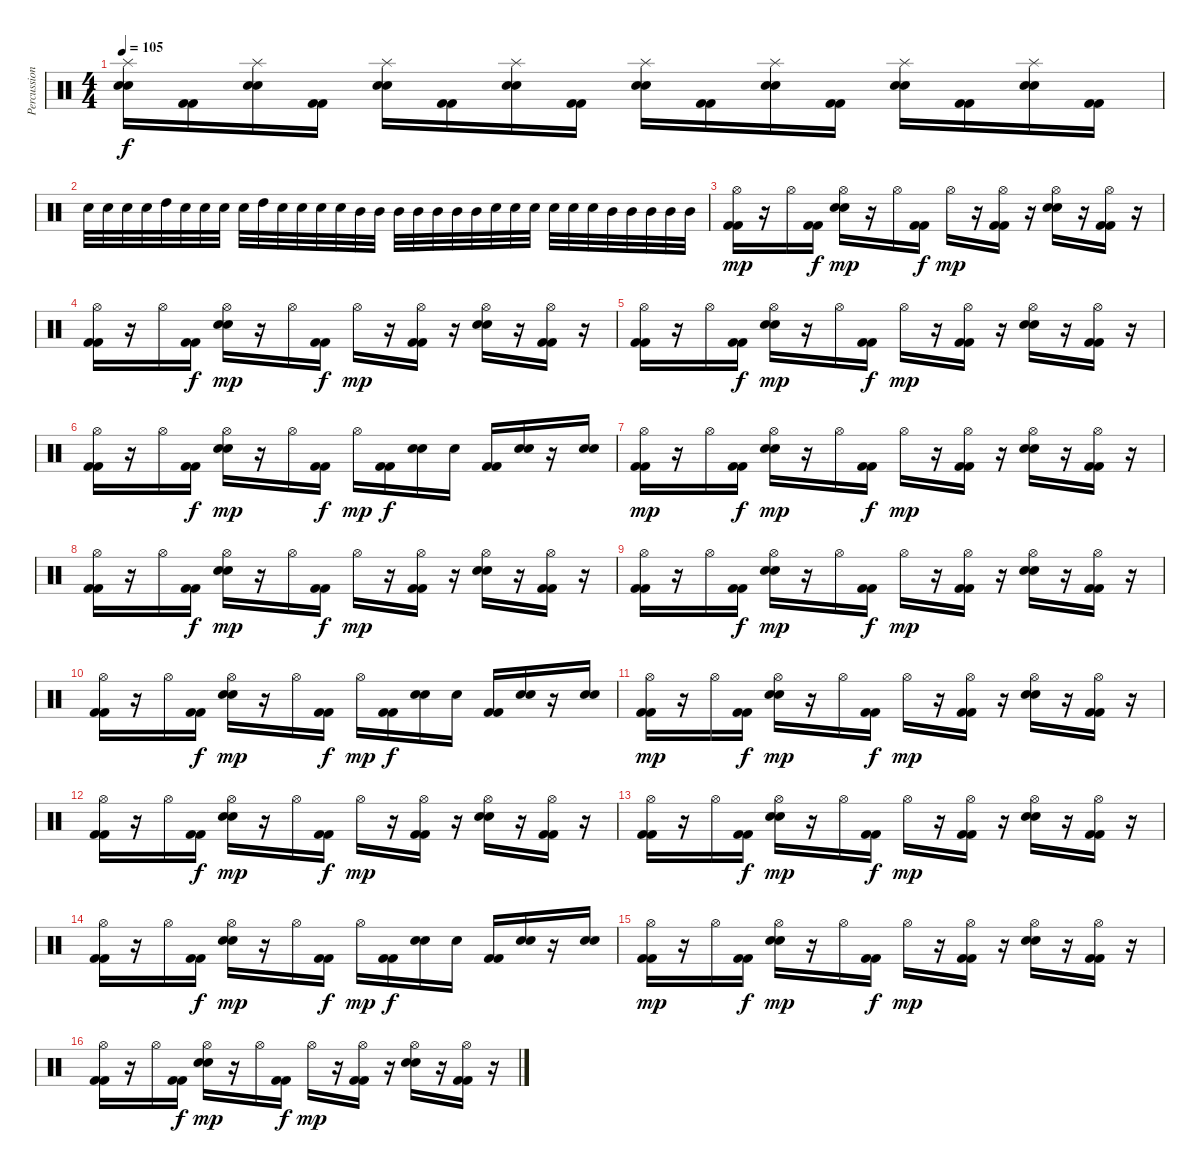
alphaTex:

\track ("Percussions" "Percussion") {instrument percussion}
\staff {score}
\articulation defaults
\ts (4 4)
\tempo 105
\clef neutral
\ks c
("Splash (hit)" "Electric Snare (hit)" "Electric Snare (hit)").16{dy f} ("Kick (hit) 2" "Kick (hit) 2").16 ("Splash (hit)" "Electric Snare (hit)" "Electric Snare (hit)").16 ("Kick (hit) 2" "Kick (hit) 2").16 ("Splash (hit)" "Electric Snare (hit)" "Electric Snare (hit)").16 ("Kick (hit) 2" "Kick (hit) 2").16 ("Splash (hit)" "Electric Snare (hit)" "Electric Snare (hit)").16 ("Kick (hit) 2" "Kick (hit) 2").16 ("Splash (hit)" "Electric Snare (hit)" "Electric Snare (hit)").16 ("Kick (hit) 2" "Kick (hit) 2").16 ("Splash (hit)" "Electric Snare (hit)" "Electric Snare (hit)").16 ("Kick (hit) 2" "Kick (hit) 2").16 ("Splash (hit)" "Electric Snare (hit)" "Electric Snare (hit)").16 ("Kick (hit) 2" "Kick (hit) 2").16 ("Splash (hit)" "Electric Snare (hit)" "Electric Snare (hit)").16 ("Kick (hit) 2" "Kick (hit) 2").16 |
"Electric Snare (hit)".32 "Electric Snare (hit)".32 "Electric Snare (hit)".32 "Electric Snare (hit)".32 "High Tom (hit)".32 "Electric Snare (hit)".32 "Electric Snare (hit)".32 "Electric Snare (hit)".32 "Electric Snare (hit)".32 "High Tom (hit)".32 "Electric Snare (hit)".32 "Electric Snare (hit)".32 "Electric Snare (hit)".32 "Electric Snare (hit)".32 "Mid Tom (hit)".32 "Mid Tom (hit)".32 "Mid Tom (hit)".32 "Mid Tom (hit)".32 "Mid Tom (hit)".32 "Mid Tom (hit)".32 "Mid Tom (hit)".32 "Electric Snare (hit)".32 "Electric Snare (hit)".32 "Electric Snare (hit)".32 "Electric Snare (hit)".32 "Electric Snare (hit)".32 "Electric Snare (hit)".32 "Mid Tom (hit)".32 "Mid Tom (hit)".32 "Mid Tom (hit)".32 "Mid Tom (hit)".32 "Mid Tom (hit)".32 |
("Hi-Hat (open)" "Kick (hit) 2" "Kick (hit) 2").16{dy mp} r.16 "Hi-Hat (open)".16 ("Kick (hit) 2" "Kick (hit) 2").16{dy f} ("Hi-Hat (open)" "Electric Snare (hit)" "Electric Snare (hit)").16{dy mp} r.16 "Hi-Hat (open)".16 ("Kick (hit) 2" "Kick (hit) 2").16{dy f} "Hi-Hat (open)".16{dy mp} r.16 ("Hi-Hat (open)" "Kick (hit) 2" "Kick (hit) 2").16 r.16 ("Hi-Hat (open)" "Electric Snare (hit)" "Electric Snare (hit)").16 r.16 ("Hi-Hat (open)" "Kick (hit) 2" "Kick (hit) 2").16 r.16 |
("Hi-Hat (open)" "Kick (hit) 2" "Kick (hit) 2").16 r.16 "Hi-Hat (open)".16 ("Kick (hit) 2" "Kick (hit) 2").16{dy f} ("Hi-Hat (open)" "Electric Snare (hit)" "Electric Snare (hit)").16{dy mp} r.16 "Hi-Hat (open)".16 ("Kick (hit) 2" "Kick (hit) 2").16{dy f} "Hi-Hat (open)".16{dy mp} r.16 ("Hi-Hat (open)" "Kick (hit) 2" "Kick (hit) 2").16 r.16 ("Hi-Hat (open)" "Electric Snare (hit)" "Electric Snare (hit)").16 r.16 ("Hi-Hat (open)" "Kick (hit) 2" "Kick (hit) 2").16 r.16 |
("Hi-Hat (open)" "Kick (hit) 2" "Kick (hit) 2").16 r.16 "Hi-Hat (open)".16 ("Kick (hit) 2" "Kick (hit) 2").16{dy f} ("Hi-Hat (open)" "Electric Snare (hit)" "Electric Snare (hit)").16{dy mp} r.16 "Hi-Hat (open)".16 ("Kick (hit) 2" "Kick (hit) 2").16{dy f} "Hi-Hat (open)".16{dy mp} r.16 ("Hi-Hat (open)" "Kick (hit) 2" "Kick (hit) 2").16 r.16 ("Hi-Hat (open)" "Electric Snare (hit)" "Electric Snare (hit)").16 r.16 ("Hi-Hat (open)" "Kick (hit) 2" "Kick (hit) 2").16 r.16 |
("Hi-Hat (open)" "Kick (hit) 2" "Kick (hit) 2").16 r.16 "Hi-Hat (open)".16 ("Kick (hit) 2" "Kick (hit) 2").16{dy f} ("Hi-Hat (open)" "Electric Snare (hit)" "Electric Snare (hit)").16{dy mp} r.16 "Hi-Hat (open)".16 ("Kick (hit) 2" "Kick (hit) 2").16{dy f} "Hi-Hat (open)".16{dy mp} ("Kick (hit) 2" "Kick (hit) 2").16{dy f} ("Electric Snare (hit)" "Electric Snare (hit)").16 "Electric Snare (hit)".16 ("Kick (hit) 2" "Kick (hit) 2").16 ("Electric Snare (hit)" "Electric Snare (hit)").16 r.16 ("Electric Snare (hit)" "Electric Snare (hit)").16 |
("Hi-Hat (open)" "Kick (hit) 2" "Kick (hit) 2").16{dy mp} r.16 "Hi-Hat (open)".16 ("Kick (hit) 2" "Kick (hit) 2").16{dy f} ("Hi-Hat (open)" "Electric Snare (hit)" "Electric Snare (hit)").16{dy mp} r.16 "Hi-Hat (open)".16 ("Kick (hit) 2" "Kick (hit) 2").16{dy f} "Hi-Hat (open)".16{dy mp} r.16 ("Hi-Hat (open)" "Kick (hit) 2" "Kick (hit) 2").16 r.16 ("Hi-Hat (open)" "Electric Snare (hit)" "Electric Snare (hit)").16 r.16 ("Hi-Hat (open)" "Kick (hit) 2" "Kick (hit) 2").16 r.16 |
("Hi-Hat (open)" "Kick (hit) 2" "Kick (hit) 2").16 r.16 "Hi-Hat (open)".16 ("Kick (hit) 2" "Kick (hit) 2").16{dy f} ("Hi-Hat (open)" "Electric Snare (hit)" "Electric Snare (hit)").16{dy mp} r.16 "Hi-Hat (open)".16 ("Kick (hit) 2" "Kick (hit) 2").16{dy f} "Hi-Hat (open)".16{dy mp} r.16 ("Hi-Hat (open)" "Kick (hit) 2" "Kick (hit) 2").16 r.16 ("Hi-Hat (open)" "Electric Snare (hit)" "Electric Snare (hit)").16 r.16 ("Hi-Hat (open)" "Kick (hit) 2" "Kick (hit) 2").16 r.16 |
("Hi-Hat (open)" "Kick (hit) 2" "Kick (hit) 2").16 r.16 "Hi-Hat (open)".16 ("Kick (hit) 2" "Kick (hit) 2").16{dy f} ("Hi-Hat (open)" "Electric Snare (hit)" "Electric Snare (hit)").16{dy mp} r.16 "Hi-Hat (open)".16 ("Kick (hit) 2" "Kick (hit) 2").16{dy f} "Hi-Hat (open)".16{dy mp} r.16 ("Hi-Hat (open)" "Kick (hit) 2" "Kick (hit) 2").16 r.16 ("Hi-Hat (open)" "Electric Snare (hit)" "Electric Snare (hit)").16 r.16 ("Hi-Hat (open)" "Kick (hit) 2" "Kick (hit) 2").16 r.16 |
("Hi-Hat (open)" "Kick (hit) 2" "Kick (hit) 2").16 r.16 "Hi-Hat (open)".16 ("Kick (hit) 2" "Kick (hit) 2").16{dy f} ("Hi-Hat (open)" "Electric Snare (hit)" "Electric Snare (hit)").16{dy mp} r.16 "Hi-Hat (open)".16 ("Kick (hit) 2" "Kick (hit) 2").16{dy f} "Hi-Hat (open)".16{dy mp} ("Kick (hit) 2" "Kick (hit) 2").16{dy f} ("Electric Snare (hit)" "Electric Snare (hit)").16 "Electric Snare (hit)".16 ("Kick (hit) 2" "Kick (hit) 2").16 ("Electric Snare (hit)" "Electric Snare (hit)").16 r.16 ("Electric Snare (hit)" "Electric Snare (hit)").16 |
("Hi-Hat (open)" "Kick (hit) 2" "Kick (hit) 2").16{dy mp} r.16 "Hi-Hat (open)".16 ("Kick (hit) 2" "Kick (hit) 2").16{dy f} ("Hi-Hat (open)" "Electric Snare (hit)" "Electric Snare (hit)").16{dy mp} r.16 "Hi-Hat (open)".16 ("Kick (hit) 2" "Kick (hit) 2").16{dy f} "Hi-Hat (open)".16{dy mp} r.16 ("Hi-Hat (open)" "Kick (hit) 2" "Kick (hit) 2").16 r.16 ("Hi-Hat (open)" "Electric Snare (hit)" "Electric Snare (hit)").16 r.16 ("Hi-Hat (open)" "Kick (hit) 2" "Kick (hit) 2").16 r.16 |
("Hi-Hat (open)" "Kick (hit) 2" "Kick (hit) 2").16 r.16 "Hi-Hat (open)".16 ("Kick (hit) 2" "Kick (hit) 2").16{dy f} ("Hi-Hat (open)" "Electric Snare (hit)" "Electric Snare (hit)").16{dy mp} r.16 "Hi-Hat (open)".16 ("Kick (hit) 2" "Kick (hit) 2").16{dy f} "Hi-Hat (open)".16{dy mp} r.16 ("Hi-Hat (open)" "Kick (hit) 2" "Kick (hit) 2").16 r.16 ("Hi-Hat (open)" "Electric Snare (hit)" "Electric Snare (hit)").16 r.16 ("Hi-Hat (open)" "Kick (hit) 2" "Kick (hit) 2").16 r.16 |
("Hi-Hat (open)" "Kick (hit) 2" "Kick (hit) 2").16 r.16 "Hi-Hat (open)".16 ("Kick (hit) 2" "Kick (hit) 2").16{dy f} ("Hi-Hat (open)" "Electric Snare (hit)" "Electric Snare (hit)").16{dy mp} r.16 "Hi-Hat (open)".16 ("Kick (hit) 2" "Kick (hit) 2").16{dy f} "Hi-Hat (open)".16{dy mp} r.16 ("Hi-Hat (open)" "Kick (hit) 2" "Kick (hit) 2").16 r.16 ("Hi-Hat (open)" "Electric Snare (hit)" "Electric Snare (hit)").16 r.16 ("Hi-Hat (open)" "Kick (hit) 2" "Kick (hit) 2").16 r.16 |
("Hi-Hat (open)" "Kick (hit) 2" "Kick (hit) 2").16 r.16 "Hi-Hat (open)".16 ("Kick (hit) 2" "Kick (hit) 2").16{dy f} ("Hi-Hat (open)" "Electric Snare (hit)" "Electric Snare (hit)").16{dy mp} r.16 "Hi-Hat (open)".16 ("Kick (hit) 2" "Kick (hit) 2").16{dy f} "Hi-Hat (open)".16{dy mp} ("Kick (hit) 2" "Kick (hit) 2").16{dy f} ("Electric Snare (hit)" "Electric Snare (hit)").16 "Electric Snare (hit)".16 ("Kick (hit) 2" "Kick (hit) 2").16 ("Electric Snare (hit)" "Electric Snare (hit)").16 r.16 ("Electric Snare (hit)" "Electric Snare (hit)").16 |
("Hi-Hat (open)" "Kick (hit) 2" "Kick (hit) 2").16{dy mp} r.16 "Hi-Hat (open)".16 ("Kick (hit) 2" "Kick (hit) 2").16{dy f} ("Hi-Hat (open)" "Electric Snare (hit)" "Electric Snare (hit)").16{dy mp} r.16 "Hi-Hat (open)".16 ("Kick (hit) 2" "Kick (hit) 2").16{dy f} "Hi-Hat (open)".16{dy mp} r.16 ("Hi-Hat (open)" "Kick (hit) 2" "Kick (hit) 2").16 r.16 ("Hi-Hat (open)" "Electric Snare (hit)" "Electric Snare (hit)").16 r.16 ("Hi-Hat (open)" "Kick (hit) 2" "Kick (hit) 2").16 r.16 |
("Hi-Hat (open)" "Kick (hit) 2" "Kick (hit) 2").16 r.16 "Hi-Hat (open)".16 ("Kick (hit) 2" "Kick (hit) 2").16{dy f} ("Hi-Hat (open)" "Electric Snare (hit)" "Electric Snare (hit)").16{dy mp} r.16 "Hi-Hat (open)".16 ("Kick (hit) 2" "Kick (hit) 2").16{dy f} "Hi-Hat (open)".16{dy mp} r.16 ("Hi-Hat (open)" "Kick (hit) 2" "Kick (hit) 2").16 r.16 ("Hi-Hat (open)" "Electric Snare (hit)" "Electric Snare (hit)").16 r.16 ("Hi-Hat (open)" "Kick (hit) 2" "Kick (hit) 2").16 r.16
